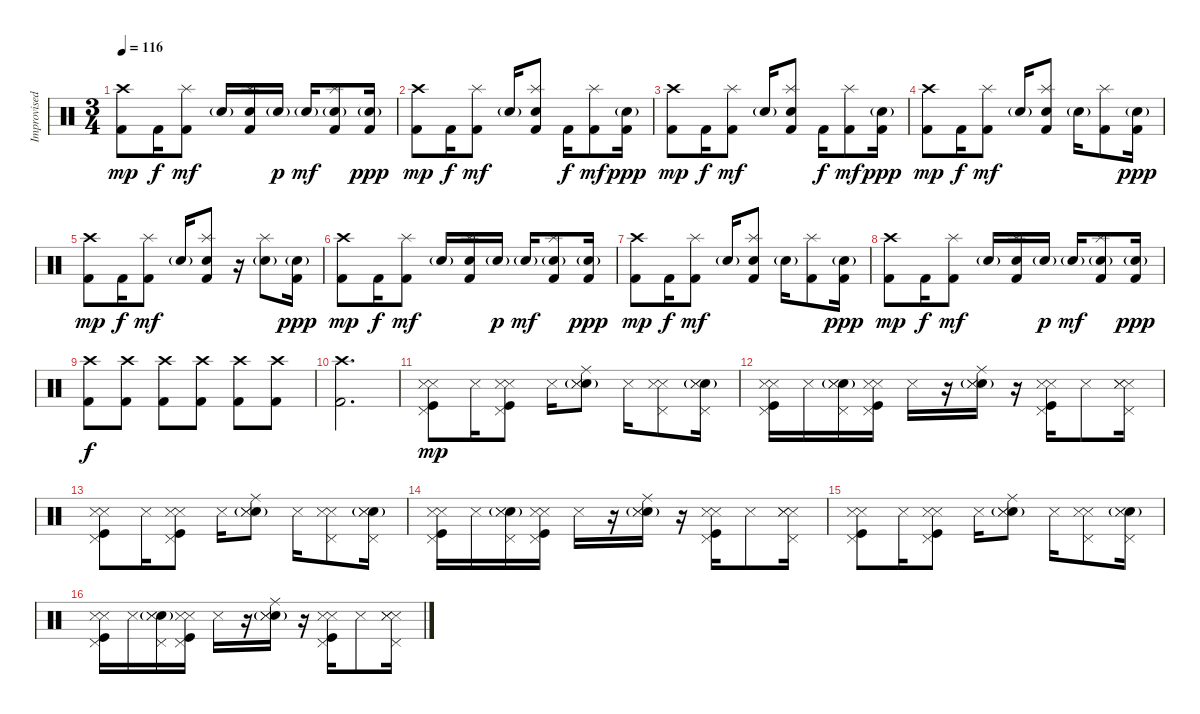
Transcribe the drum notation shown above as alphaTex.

\track ("Improvised Drums" "Improvised") {instrument percussion}
\staff {score}
\articulation defaults
\ts (3 4)
\tempo 116
\clef neutral
\ks c
("Kick (hit) 2" "Crash high (hit)").8{dy mp} "Kick (hit) 2".16{dy f} ("Kick (hit) 2" "Splash (hit)").8{dy mf} "Snare (hit) 2"{g}.16 ("Kick (hit) 2" "Snare (hit) 2" "Splash (hit)").16 "Snare (hit) 2"{g}.16{dy p} "Snare (hit) 2"{g}.16{dy mf} ("Kick (hit) 2" "Snare (hit) 2"{g} "Splash (hit)").8 ("Kick (hit) 2" "Electric Snare (hit)"{g}).16{dy ppp} |
("Kick (hit) 2" "Crash high (hit)").8{dy mp} "Kick (hit) 2".16{dy f} ("Kick (hit) 2" "Splash (hit)").8{dy mf} "Snare (hit) 2"{g}.16 ("Kick (hit) 2" "Snare (hit) 2" "Splash (hit)").8 "Kick (hit) 2".16{dy f} ("Kick (hit) 2" "Splash (hit)").8{dy mf} ("Kick (hit) 2" "Electric Snare (hit)"{g}).16{dy ppp} |
("Kick (hit) 2" "Crash high (hit)").8{dy mp} "Kick (hit) 2".16{dy f} ("Kick (hit) 2" "Splash (hit)").8{dy mf} "Snare (hit) 2"{g}.16 ("Kick (hit) 2" "Snare (hit) 2" "Splash (hit)").8 "Kick (hit) 2".16{dy f} ("Kick (hit) 2" "Splash (hit)").8{dy mf} ("Kick (hit) 2" "Electric Snare (hit)"{g}).16{dy ppp} |
("Kick (hit) 2" "Crash high (hit)").8{dy mp} "Kick (hit) 2".16{dy f} ("Kick (hit) 2" "Splash (hit)").8{dy mf} "Snare (hit) 2"{g}.16 ("Kick (hit) 2" "Snare (hit) 2" "Splash (hit)").8 "Snare (hit) 2"{g}.16 ("Kick (hit) 2" "Splash (hit)").8 ("Kick (hit) 2" "Electric Snare (hit)"{g}).16{dy ppp} |
("Kick (hit) 2" "Crash high (hit)").8{dy mp} "Kick (hit) 2".16{dy f} ("Kick (hit) 2" "Splash (hit)").8{dy mf} "Snare (hit) 2"{g}.16 ("Kick (hit) 2" "Snare (hit) 2" "Splash (hit)").8 r.16 ("Snare (hit) 2"{g} "Splash (hit)").8 ("Kick (hit) 2" "Electric Snare (hit)"{g}).16{dy ppp} |
("Kick (hit) 2" "Crash high (hit)").8{dy mp} "Kick (hit) 2".16{dy f} ("Kick (hit) 2" "Splash (hit)").8{dy mf} "Snare (hit) 2"{g}.16 ("Kick (hit) 2" "Snare (hit) 2" "Splash (hit)").16 "Snare (hit) 2"{g}.16{dy p} "Snare (hit) 2"{g}.16{dy mf} ("Kick (hit) 2" "Snare (hit) 2"{g} "Splash (hit)").8 ("Kick (hit) 2" "Electric Snare (hit)"{g}).16{dy ppp} |
("Kick (hit) 2" "Crash high (hit)").8{dy mp} "Kick (hit) 2".16{dy f} ("Kick (hit) 2" "Splash (hit)").8{dy mf} "Snare (hit) 2"{g}.16 ("Kick (hit) 2" "Snare (hit) 2" "Splash (hit)").8 "Snare (hit) 2"{g}.16 ("Kick (hit) 2" "Splash (hit)").8 ("Kick (hit) 2" "Electric Snare (hit)"{g}).16{dy ppp} |
("Kick (hit) 2" "Crash high (hit)").8{dy mp} "Kick (hit) 2".16{dy f} ("Kick (hit) 2" "Splash (hit)").8{dy mf} "Snare (hit) 2"{g}.16 ("Kick (hit) 2" "Snare (hit) 2" "Splash (hit)").16 "Snare (hit) 2"{g}.16{dy p} "Snare (hit) 2"{g}.16{dy mf} ("Kick (hit) 2" "Snare (hit) 2"{g} "Splash (hit)").8 ("Kick (hit) 2" "Electric Snare (hit)"{g}).16{dy ppp} |
("Crash high (hit)" "Kick (hit) 2").8{dy f} ("Crash high (hit)" "Kick (hit) 2").8 ("Crash high (hit)" "Kick (hit) 2").8 ("Crash high (hit)" "Kick (hit) 2").8 ("Crash high (hit)" "Kick (hit) 2").8 ("Crash high (hit)" "Kick (hit) 2").8 |
("Crash high (hit)" "Kick (hit) 2").2{d} |
("Metronome (hit)" "Kick (hit)" "Pedal Hi-Hat (hit)" "Snare (side stick) 3").8{dy mp} "Snare (side stick) 3".16 ("Metronome (hit)" "Kick (hit)" "Pedal Hi-Hat (hit)" "Snare (side stick) 3").8 "Snare (side stick) 3".16 ("Electric Snare (hit)"{g} "Metronome (hit)" "Ride (middle)" "Snare (side stick) 3").8 "Snare (side stick) 3".16 ("Metronome (hit)" "Pedal Hi-Hat (hit)" "Snare (side stick) 3").8 ("Electric Snare (hit)"{g} "Metronome (hit)" "Pedal Hi-Hat (hit)" "Snare (side stick) 3").16 |
("Metronome (hit)" "Kick (hit)" "Pedal Hi-Hat (hit)" "Snare (side stick) 3").16 "Snare (side stick) 3".16 ("Electric Snare (hit)"{g} "Metronome (hit)" "Pedal Hi-Hat (hit)" "Snare (side stick) 3").16 ("Kick (hit)" "Metronome (hit)" "Pedal Hi-Hat (hit)" "Snare (side stick) 3").16 "Snare (side stick) 3".16 r.16 ("Electric Snare (hit)"{g} "Metronome (hit)" "Ride (middle)" "Snare (side stick) 3").16 r.16 ("Kick (hit)" "Metronome (hit)" "Pedal Hi-Hat (hit)" "Snare (side stick) 3").16 "Snare (side stick) 3".8 ("Metronome (hit)" "Metronome (hit)" "Pedal Hi-Hat (hit)" "Snare (side stick) 3").16 |
("Metronome (hit)" "Kick (hit)" "Pedal Hi-Hat (hit)" "Snare (side stick) 3").8 "Snare (side stick) 3".16 ("Metronome (hit)" "Kick (hit)" "Pedal Hi-Hat (hit)" "Snare (side stick) 3").8 "Snare (side stick) 3".16 ("Electric Snare (hit)"{g} "Metronome (hit)" "Ride (middle)" "Snare (side stick) 3").8 "Snare (side stick) 3".16 ("Metronome (hit)" "Pedal Hi-Hat (hit)" "Snare (side stick) 3").8 ("Electric Snare (hit)"{g} "Metronome (hit)" "Pedal Hi-Hat (hit)" "Snare (side stick) 3").16 |
("Metronome (hit)" "Kick (hit)" "Pedal Hi-Hat (hit)" "Snare (side stick) 3").16 "Snare (side stick) 3".16 ("Electric Snare (hit)"{g} "Metronome (hit)" "Pedal Hi-Hat (hit)" "Snare (side stick) 3").16 ("Kick (hit)" "Metronome (hit)" "Pedal Hi-Hat (hit)" "Snare (side stick) 3").16 "Snare (side stick) 3".16 r.16 ("Electric Snare (hit)"{g} "Metronome (hit)" "Ride (middle)" "Snare (side stick) 3").16 r.16 ("Kick (hit)" "Metronome (hit)" "Pedal Hi-Hat (hit)" "Snare (side stick) 3").16 "Snare (side stick) 3".8 ("Metronome (hit)" "Metronome (hit)" "Pedal Hi-Hat (hit)" "Snare (side stick) 3").16 |
("Metronome (hit)" "Kick (hit)" "Pedal Hi-Hat (hit)" "Snare (side stick) 3").8 "Snare (side stick) 3".16 ("Metronome (hit)" "Kick (hit)" "Pedal Hi-Hat (hit)" "Snare (side stick) 3").8 "Snare (side stick) 3".16 ("Electric Snare (hit)"{g} "Metronome (hit)" "Ride (middle)" "Snare (side stick) 3").8 "Snare (side stick) 3".16 ("Metronome (hit)" "Pedal Hi-Hat (hit)" "Snare (side stick) 3").8 ("Electric Snare (hit)"{g} "Metronome (hit)" "Pedal Hi-Hat (hit)" "Snare (side stick) 3").16 |
("Metronome (hit)" "Kick (hit)" "Pedal Hi-Hat (hit)" "Snare (side stick) 3").16 "Snare (side stick) 3".16 ("Electric Snare (hit)"{g} "Metronome (hit)" "Pedal Hi-Hat (hit)" "Snare (side stick) 3").16 ("Kick (hit)" "Metronome (hit)" "Pedal Hi-Hat (hit)" "Snare (side stick) 3").16 "Snare (side stick) 3".16 r.16 ("Electric Snare (hit)"{g} "Metronome (hit)" "Ride (middle)" "Snare (side stick) 3").16 r.16 ("Kick (hit)" "Metronome (hit)" "Pedal Hi-Hat (hit)" "Snare (side stick) 3").16 "Snare (side stick) 3".8 ("Metronome (hit)" "Metronome (hit)" "Pedal Hi-Hat (hit)" "Snare (side stick) 3").16
